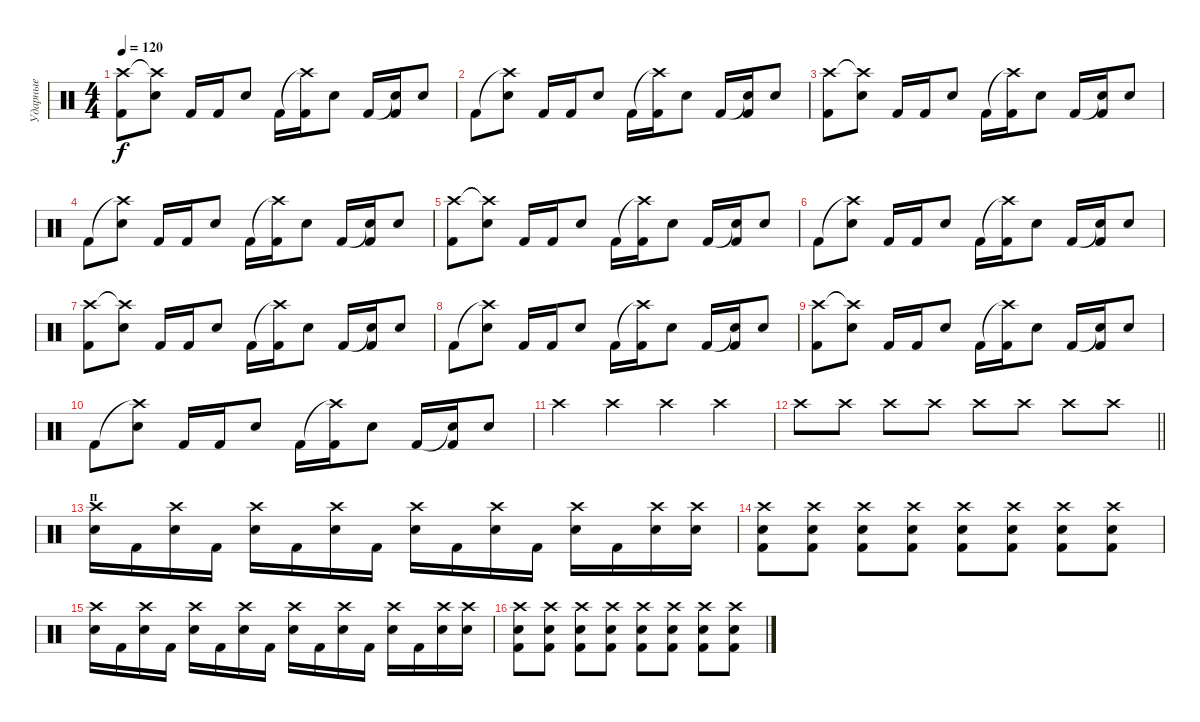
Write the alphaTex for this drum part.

\track ("Ударные" "Ударные") {instrument percussion}
\staff {score}
\articulation defaults
\ts (4 4)
\tempo 120
\clef neutral
\ks c
("Crash high (hit)" "Kick (hit) 2").8{dy f} ("Crash high (hit)"{t} "Electric Snare (hit)").8 "Kick (hit) 2".16 "Kick (hit) 2".16 "Electric Snare (hit)".8 "Kick (hit) 2".16 ("Crash high (hit)"{t} "Kick (hit) 2").16 "Electric Snare (hit)".8 "Kick (hit) 2".16 ("Snare (hit)"{t} "Kick (hit) 2").16 "Electric Snare (hit)".8 |
"Kick (hit) 2".8 ("Crash high (hit)"{t} "Electric Snare (hit)").8 "Kick (hit) 2".16 "Kick (hit) 2".16 "Electric Snare (hit)".8 "Kick (hit) 2".16 ("Crash high (hit)"{t} "Kick (hit) 2").16 "Electric Snare (hit)".8 "Kick (hit) 2".16 ("Snare (hit)"{t} "Kick (hit) 2").16 "Electric Snare (hit)".8 |
("Crash high (hit)" "Kick (hit) 2").8 ("Crash high (hit)"{t} "Electric Snare (hit)").8 "Kick (hit) 2".16 "Kick (hit) 2".16 "Electric Snare (hit)".8 "Kick (hit) 2".16 ("Crash high (hit)"{t} "Kick (hit) 2").16 "Electric Snare (hit)".8 "Kick (hit) 2".16 ("Snare (hit)"{t} "Kick (hit) 2").16 "Electric Snare (hit)".8 |
"Kick (hit) 2".8 ("Crash high (hit)"{t} "Electric Snare (hit)").8 "Kick (hit) 2".16 "Kick (hit) 2".16 "Electric Snare (hit)".8 "Kick (hit) 2".16 ("Crash high (hit)"{t} "Kick (hit) 2").16 "Electric Snare (hit)".8 "Kick (hit) 2".16 ("Snare (hit)"{t} "Kick (hit) 2").16 "Electric Snare (hit)".8 |
("Crash high (hit)" "Kick (hit) 2").8 ("Crash high (hit)"{t} "Electric Snare (hit)").8 "Kick (hit) 2".16 "Kick (hit) 2".16 "Electric Snare (hit)".8 "Kick (hit) 2".16 ("Crash high (hit)"{t} "Kick (hit) 2").16 "Electric Snare (hit)".8 "Kick (hit) 2".16 ("Snare (hit)"{t} "Kick (hit) 2").16 "Electric Snare (hit)".8 |
"Kick (hit) 2".8 ("Crash high (hit)"{t} "Electric Snare (hit)").8 "Kick (hit) 2".16 "Kick (hit) 2".16 "Electric Snare (hit)".8 "Kick (hit) 2".16 ("Crash high (hit)"{t} "Kick (hit) 2").16 "Electric Snare (hit)".8 "Kick (hit) 2".16 ("Snare (hit)"{t} "Kick (hit) 2").16 "Electric Snare (hit)".8 |
("Crash high (hit)" "Kick (hit) 2").8 ("Crash high (hit)"{t} "Electric Snare (hit)").8 "Kick (hit) 2".16 "Kick (hit) 2".16 "Electric Snare (hit)".8 "Kick (hit) 2".16 ("Crash high (hit)"{t} "Kick (hit) 2").16 "Electric Snare (hit)".8 "Kick (hit) 2".16 ("Snare (hit)"{t} "Kick (hit) 2").16 "Electric Snare (hit)".8 |
"Kick (hit) 2".8 ("Crash high (hit)"{t} "Electric Snare (hit)").8 "Kick (hit) 2".16 "Kick (hit) 2".16 "Electric Snare (hit)".8 "Kick (hit) 2".16 ("Crash high (hit)"{t} "Kick (hit) 2").16 "Electric Snare (hit)".8 "Kick (hit) 2".16 ("Snare (hit)"{t} "Kick (hit) 2").16 "Electric Snare (hit)".8 |
("Crash high (hit)" "Kick (hit) 2").8 ("Crash high (hit)"{t} "Electric Snare (hit)").8 "Kick (hit) 2".16 "Kick (hit) 2".16 "Electric Snare (hit)".8 "Kick (hit) 2".16 ("Crash high (hit)"{t} "Kick (hit) 2").16 "Electric Snare (hit)".8 "Kick (hit) 2".16 ("Snare (hit)"{t} "Kick (hit) 2").16 "Electric Snare (hit)".8 |
"Kick (hit) 2".8 ("Crash high (hit)"{t} "Electric Snare (hit)").8 "Kick (hit) 2".16 "Kick (hit) 2".16 "Electric Snare (hit)".8 "Kick (hit) 2".16 ("Crash high (hit)"{t} "Kick (hit) 2").16 "Electric Snare (hit)".8 "Kick (hit) 2".16 ("Snare (hit)"{t} "Kick (hit) 2").16 "Electric Snare (hit)".8 |
"Crash high (hit)".4 "Crash high (hit)".4 "Crash high (hit)".4 "Crash high (hit)".4 |
\barLineRight lightlight "Crash high (hit)".8 "Crash high (hit)".8 "Crash high (hit)".8 "Crash high (hit)".8 "Crash high (hit)".8 "Crash high (hit)".8 "Crash high (hit)".8 "Crash high (hit)".8
|
\section ("" "п")
("Snare (hit) 2" "Crash high (hit)").16 "Kick (hit) 2".16 ("Snare (hit) 2" "Crash high (hit)").16 "Kick (hit) 2".16 ("Snare (hit) 2" "Crash high (hit)").16 "Kick (hit) 2".16 ("Snare (hit) 2" "Crash high (hit)").16 "Kick (hit) 2".16 ("Snare (hit) 2" "Crash high (hit)").16 "Kick (hit) 2".16 ("Snare (hit) 2" "Crash high (hit)").16 "Kick (hit) 2".16 ("Snare (hit) 2" "Crash high (hit)").16 "Kick (hit) 2".16 ("Snare (hit) 2" "Crash high (hit)").16 ("Crash high (hit)" "Electric Snare (hit)").16 |
("Crash high (hit)" "Kick (hit) 2" "Electric Snare (hit)").8 ("Crash high (hit)" "Kick (hit) 2" "Electric Snare (hit)").8 ("Crash high (hit)" "Kick (hit) 2" "Electric Snare (hit)").8 ("Crash high (hit)" "Kick (hit) 2" "Electric Snare (hit)").8 ("Crash high (hit)" "Kick (hit) 2" "Electric Snare (hit)").8 ("Crash high (hit)" "Kick (hit) 2" "Electric Snare (hit)").8 ("Crash high (hit)" "Kick (hit) 2" "Electric Snare (hit)").8 ("Crash high (hit)" "Kick (hit) 2" "Electric Snare (hit)").8 |
("Snare (hit) 2" "Crash high (hit)").16 "Kick (hit) 2".16 ("Snare (hit) 2" "Crash high (hit)").16 "Kick (hit) 2".16 ("Snare (hit) 2" "Crash high (hit)").16 "Kick (hit) 2".16 ("Snare (hit) 2" "Crash high (hit)").16 "Kick (hit) 2".16 ("Snare (hit) 2" "Crash high (hit)").16 "Kick (hit) 2".16 ("Snare (hit) 2" "Crash high (hit)").16 "Kick (hit) 2".16 ("Snare (hit) 2" "Crash high (hit)").16 "Kick (hit) 2".16 ("Snare (hit) 2" "Crash high (hit)").16 ("Crash high (hit)" "Electric Snare (hit)").16 |
("Crash high (hit)" "Kick (hit) 2" "Electric Snare (hit)").8 ("Crash high (hit)" "Kick (hit) 2" "Electric Snare (hit)").8 ("Crash high (hit)" "Kick (hit) 2" "Electric Snare (hit)").8 ("Crash high (hit)" "Kick (hit) 2" "Electric Snare (hit)").8 ("Crash high (hit)" "Kick (hit) 2" "Electric Snare (hit)").8 ("Crash high (hit)" "Kick (hit) 2" "Electric Snare (hit)").8 ("Crash high (hit)" "Kick (hit) 2" "Electric Snare (hit)").8 ("Crash high (hit)" "Kick (hit) 2" "Electric Snare (hit)").8
